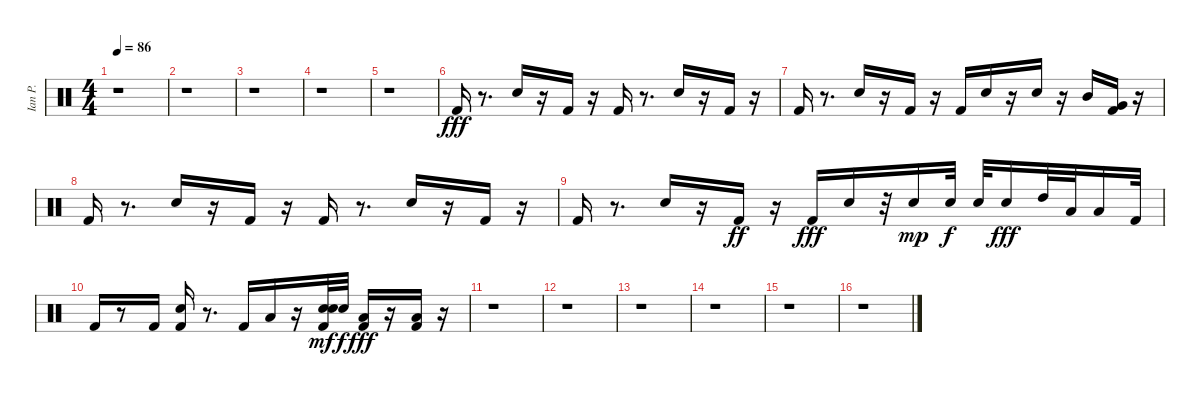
\track ("Ian P." "Ian P.") {instrument percussion}
\staff {score}
\articulation defaults
\ts (4 4)
\tempo 86
\clef neutral
\ks c
r.1{dy ff} |
r.1 |
r.1 |
r.1 |
r.1 |
"Kick (hit) 2".16{dy fff} r.8{d} "Snare (hit) 2".16 r.16 "Kick (hit) 2".16 r.16 "Kick (hit) 2".16 r.8{d} "Snare (hit) 2".16 r.16 "Kick (hit) 2".16 r.16 |
"Kick (hit) 2".16 r.8{d} "Snare (hit) 2".16 r.16 "Kick (hit) 2".16 r.16 "Kick (hit) 2".16 "Snare (hit) 2".16 r.16 "Snare (hit) 2".16 r.16 "Mid Tom (hit)".16 ("Very Low Tom (hit)" "Kick (hit) 2").16 r.16 |
"Kick (hit) 2".16 r.8{d} "Snare (hit) 2".16 r.16 "Kick (hit) 2".16 r.16 "Kick (hit) 2".16 r.8{d} "Snare (hit) 2".16 r.16 "Kick (hit) 2".16 r.16 |
"Kick (hit) 2".16 r.8{d} "Snare (hit) 2".16 r.16 "Kick (hit) 2".16{dy ff} r.16 "Kick (hit) 2".16{dy fff} "Snare (hit) 2".16 r.32 "Snare (hit) 2".16{dy mp} "Snare (hit) 2".32{dy f} "Snare (hit) 2".32 "Snare (hit) 2".16{dy fff} "High Tom (hit)".32 "Low Tom (hit)".32 "Low Floor Tom (hit)".16 "Kick (hit) 2".32 |
"Kick (hit) 2".16 r.8 "Kick (hit) 2".16 ("Snare (hit) 2" "Kick (hit) 2").16 r.8{d} "Kick (hit) 2".16 "Low Floor Tom (hit)".16 r.16 ("Kick (hit) 2" "Snare (hit) 2" "Snare (hit) 2").32{dy mf} "Snare (hit) 2".32{dy f} ("Kick (hit) 2" "Low Tom (hit)").16{dy fff} r.16 ("Kick (hit) 2" "Low Floor Tom (hit)").16 r.16 |
r.1 |
r.1 |
r.1 |
r.1 |
r.1 |
r.1
